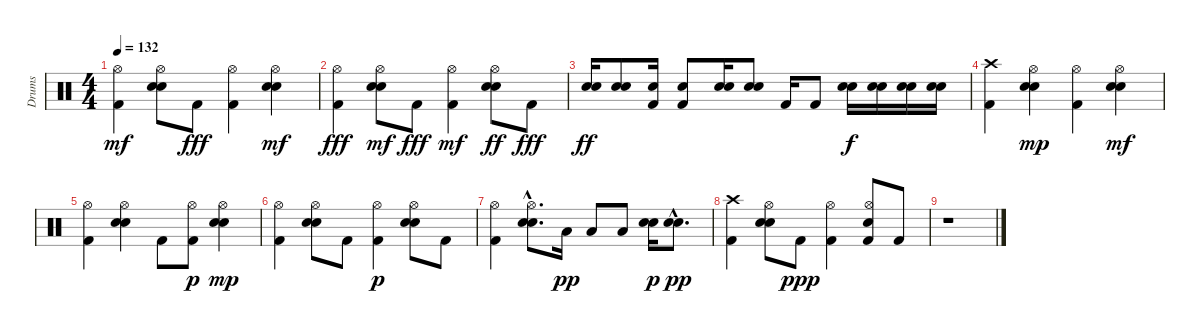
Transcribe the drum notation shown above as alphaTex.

\track ("Drums" "Drums") {instrument percussion}
\staff {score}
\articulation defaults
\ts (4 4)
\tempo 132
\clef neutral
\ks c
("Kick (hit) 2" "Hi-Hat (open)").4{dy mf} ("Snare (hit) 2" "Hi-Hat (open)" "Electric Snare (hit)").8 "Kick (hit) 2".8{dy fff} ("Hi-Hat (open)" "Kick (hit) 2").4 ("Snare (hit) 2" "Hi-Hat (open)" "Electric Snare (hit)").4{dy mf} |
("Hi-Hat (open)" "Kick (hit) 2").4{dy fff} ("Snare (hit) 2" "Hi-Hat (open)" "Electric Snare (hit)").8{dy mf} "Kick (hit) 2".8{dy fff} ("Kick (hit) 2" "Hi-Hat (open)").4{dy mf} ("Hi-Hat (open)" "Snare (hit) 2" "Electric Snare (hit)").8{dy ff} "Kick (hit) 2".8{dy fff} |
("Snare (hit) 2" "Electric Snare (hit)").16{dy ff} ("Snare (hit) 2" "Electric Snare (hit)").8 ("Kick (hit) 2" "Electric Snare (hit)").16 ("Kick (hit) 2" "Electric Snare (hit)").8 ("Snare (hit) 2" "Electric Snare (hit)").16 ("Snare (hit) 2" "Electric Snare (hit)").8 "Kick (hit) 2".16 "Kick (hit) 2".8 ("Snare (hit) 2" "Electric Snare (hit)").16{dy f} ("Snare (hit) 2" "Electric Snare (hit)").16 ("Snare (hit) 2" "Electric Snare (hit)").16 ("Snare (hit) 2" "Electric Snare (hit)").16 |
("Crash high (hit)" "Kick (hit) 2").4 ("Hi-Hat (open)" "Snare (hit) 2" "Electric Snare (hit)").4{dy mp} ("Kick (hit) 2" "Hi-Hat (open)").4 ("Snare (hit) 2" "Hi-Hat (open)" "Electric Snare (hit)").4{dy mf} |
("Hi-Hat (open)" "Kick (hit) 2").4 ("Snare (hit) 2" "Hi-Hat (open)" "Electric Snare (hit)").4 "Kick (hit) 2".8 ("Kick (hit) 2" "Hi-Hat (open)").8{dy p} ("Snare (hit) 2" "Hi-Hat (open)" "Electric Snare (hit)").4{dy mp} |
("Hi-Hat (open)" "Kick (hit) 2").4 ("Snare (hit) 2" "Hi-Hat (open)" "Electric Snare (hit)").8 "Kick (hit) 2".8 ("Kick (hit) 2" "Hi-Hat (open)").4{dy p} ("Snare (hit) 2" "Hi-Hat (open)" "Electric Snare (hit)").8 "Kick (hit) 2".8 |
("Hi-Hat (open)" "Kick (hit) 2").4 ("Snare (hit) 2"{hac} "Hi-Hat (open)"{hac} "Electric Snare (hit)"{hac}).8{d} "Low Tom (hit)".16{dy pp} "Low Tom (hit)".8 "Low Floor Tom (hit)".8 ("Snare (hit) 2" "Electric Snare (hit)").16{dy p} ("Snare (hit) 2"{hac} "Electric Snare (hit)"{hac}).8{d dy pp} |
("Kick (hit) 2" "Crash high (hit)").4 ("Snare (hit) 2" "Hi-Hat (open)" "Electric Snare (hit)").8 "Kick (hit) 2".8{dy ppp} ("Kick (hit) 2" "Hi-Hat (open)").4 ("Hi-Hat (open)" "Kick (hit) 2" "Electric Snare (hit)").8 "Kick (hit) 2".8 |
r.1
